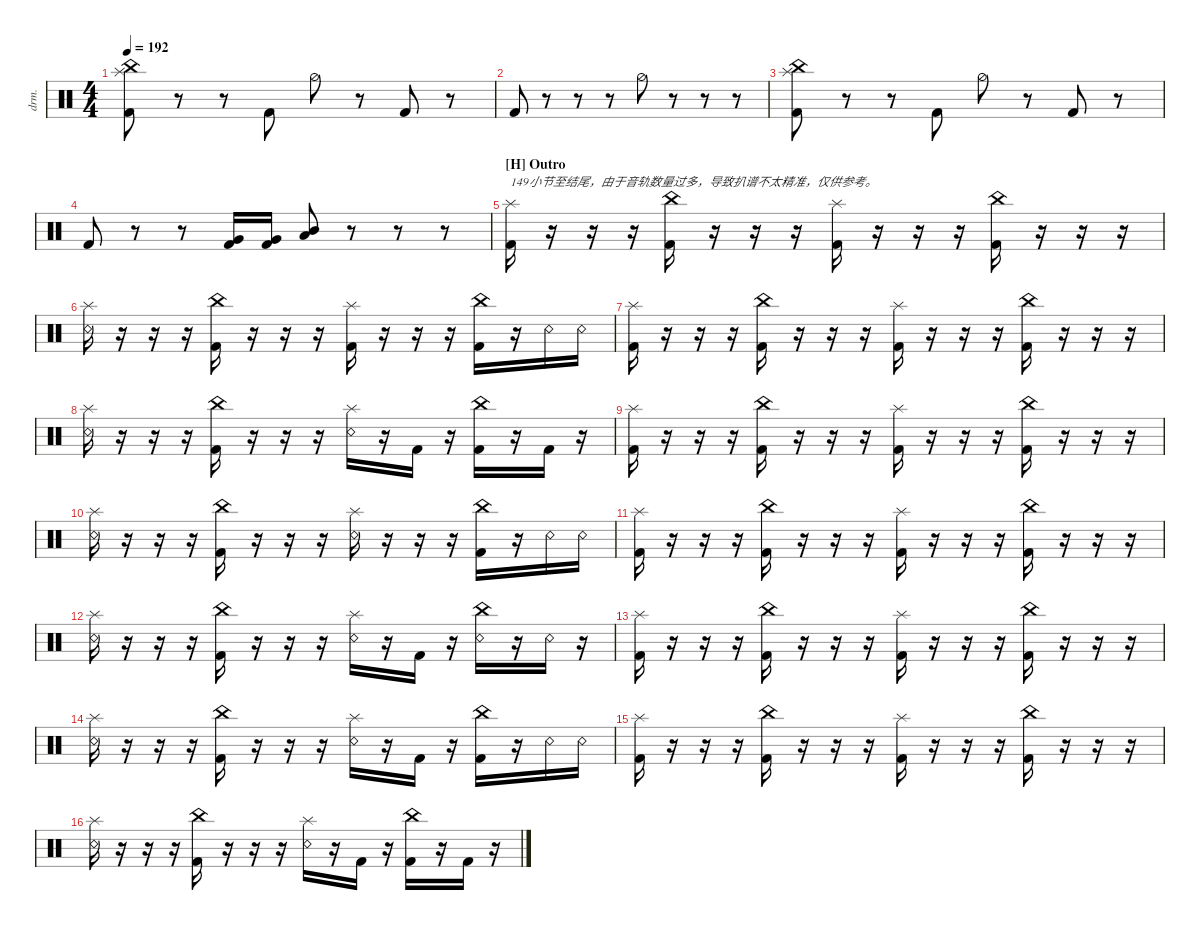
\defaultSystemsLayout 4
\hideDynamics
\bracketExtendMode nobrackets
\otherSystemsTrackNameOrientation horizontal
\track ("Drumkit" "drm.") {instrument percussion}
\staff {score}
\articulation defaults
\ts (4 4)
\tempo 192
\clef neutral
\ks c
("Kick (hit) 2" "China (hit)" "Splash (hit)").8{dy ff beam Down} r.8{beam Down} r.8{beam Down} "Kick (hit) 2".8{beam Up} "Hi-Hat (half)".8{beam Down} r.8{beam Down} "Kick (hit) 2".8{beam Up} r.8{beam Up} |
"Kick (hit) 2".8{beam Up} r.8{beam Up} r.8{beam Up} r.8{beam Up} "Hi-Hat (half)".8{beam Down} r.8{beam Down} r.8{beam Down} r.8{beam Down} |
("Kick (hit) 2" "China (hit)" "Splash (hit)").8{beam Down} r.8{beam Down} r.8{beam Down} "Kick (hit) 2".8{beam Up} "Hi-Hat (half)".8{beam Down} r.8{beam Down} "Kick (hit) 2".8{beam Up} r.8{beam Up} |
"Kick (hit) 2".8{beam Up} r.8{beam Up} r.8{beam Up} ("Kick (hit) 2" "Very Low Tom (hit)").16{beam Up} ("Kick (hit) 2" "Very Low Tom (hit)").16{beam Up} ("Mid Tom (hit)" "Low Tom (hit)").8{beam Up} r.8{beam Up} r.8{beam Up} r.8{beam Up} |
\section ("H" "Outro")
("Kick (hit) 2" "Splash (hit)").16{txt "149小节至结尾，由于音轨数量过多，导致扒谱不太精准，仅供参考。" beam Down} r.16{beam Down} r.16{beam Down} r.16{beam Down} ("Kick (hit) 2" "China (hit)").16{beam Down} r.16{beam Down} r.16{beam Down} r.16{beam Down} ("Kick (hit) 2" "Splash (hit)").16{beam Down} r.16{beam Down} r.16{beam Down} r.16{beam Down} ("Kick (hit) 2" "China (hit)").16{beam Down} r.16{beam Down} r.16{beam Down} r.16{beam Down} |
("Snare (rim shot)" "Splash (hit)").16{beam Down} r.16{beam Down} r.16{beam Down} r.16{beam Down} ("Kick (hit) 2" "China (hit)").16{beam Down} r.16{beam Down} r.16{beam Down} r.16{beam Down} ("Kick (hit) 2" "Splash (hit)").16{beam Down} r.16{beam Down} r.16{beam Down} r.16{beam Down} ("Kick (hit) 2" "China (hit)").16{beam Down} r.16{beam Down} "Snare (rim shot)".16{beam Down} "Snare (rim shot)".16{beam Down} |
("Kick (hit) 2" "Splash (hit)").16{beam Down} r.16{beam Down} r.16{beam Down} r.16{beam Down} ("Kick (hit) 2" "China (hit)").16{beam Down} r.16{beam Down} r.16{beam Down} r.16{beam Down} ("Kick (hit) 2" "Splash (hit)").16{beam Down} r.16{beam Down} r.16{beam Down} r.16{beam Down} ("Kick (hit) 2" "China (hit)").16{beam Down} r.16{beam Down} r.16{beam Down} r.16{beam Down} |
("Snare (rim shot)" "Splash (hit)").16{beam Down} r.16{beam Down} r.16{beam Down} r.16{beam Down} ("Kick (hit) 2" "China (hit)").16{beam Down} r.16{beam Down} r.16{beam Down} r.16{beam Down} ("Splash (hit)" "Snare (rim shot)").16{beam Down} r.16{beam Down} "Kick (hit) 2".16{beam Down} r.16{beam Down} ("Kick (hit) 2" "China (hit)").16{beam Down} r.16{beam Down} "Kick (hit) 2".16{beam Down} r.16{beam Down} |
("Kick (hit) 2" "Splash (hit)").16{beam Down} r.16{beam Down} r.16{beam Down} r.16{beam Down} ("Kick (hit) 2" "China (hit)").16{beam Down} r.16{beam Down} r.16{beam Down} r.16{beam Down} ("Kick (hit) 2" "Splash (hit)").16{beam Down} r.16{beam Down} r.16{beam Down} r.16{beam Down} ("Kick (hit) 2" "China (hit)").16{beam Down} r.16{beam Down} r.16{beam Down} r.16{beam Down} |
("Snare (rim shot)" "Splash (hit)").16{beam Down} r.16{beam Down} r.16{beam Down} r.16{beam Down} ("Kick (hit) 2" "China (hit)").16{beam Down} r.16{beam Down} r.16{beam Down} r.16{beam Down} ("Splash (hit)" "Snare (rim shot)").16{beam Down} r.16{beam Down} r.16{beam Down} r.16{beam Down} ("Kick (hit) 2" "China (hit)").16{beam Down} r.16{beam Down} "Snare (rim shot)".16{beam Down} "Snare (rim shot)".16{beam Down} |
("Kick (hit) 2" "Splash (hit)").16{beam Down} r.16{beam Down} r.16{beam Down} r.16{beam Down} ("Kick (hit) 2" "China (hit)").16{beam Down} r.16{beam Down} r.16{beam Down} r.16{beam Down} ("Kick (hit) 2" "Splash (hit)").16{beam Down} r.16{beam Down} r.16{beam Down} r.16{beam Down} ("Kick (hit) 2" "China (hit)").16{beam Down} r.16{beam Down} r.16{beam Down} r.16{beam Down} |
("Snare (rim shot)" "Splash (hit)").16{beam Down} r.16{beam Down} r.16{beam Down} r.16{beam Down} ("Kick (hit) 2" "China (hit)").16{beam Down} r.16{beam Down} r.16{beam Down} r.16{beam Down} ("Splash (hit)" "Snare (rim shot)").16{beam Down} r.16{beam Down} "Kick (hit) 2".16{beam Down} r.16{beam Down} ("China (hit)" "Snare (rim shot)").16{beam Down} r.16{beam Down} "Snare (rim shot)".16{beam Down} r.16{beam Down} |
("Kick (hit) 2" "Splash (hit)").16{beam Down} r.16{beam Down} r.16{beam Down} r.16{beam Down} ("Kick (hit) 2" "China (hit)").16{beam Down} r.16{beam Down} r.16{beam Down} r.16{beam Down} ("Kick (hit) 2" "Splash (hit)").16{beam Down} r.16{beam Down} r.16{beam Down} r.16{beam Down} ("Kick (hit) 2" "China (hit)").16{beam Down} r.16{beam Down} r.16{beam Down} r.16{beam Down} |
("Snare (rim shot)" "Splash (hit)").16{beam Down} r.16{beam Down} r.16{beam Down} r.16{beam Down} ("Kick (hit) 2" "China (hit)").16{beam Down} r.16{beam Down} r.16{beam Down} r.16{beam Down} ("Splash (hit)" "Snare (rim shot)").16{beam Down} r.16{beam Down} "Kick (hit) 2".16{beam Down} r.16{beam Down} ("Kick (hit) 2" "China (hit)").16{beam Down} r.16{beam Down} "Snare (rim shot)".16{beam Down} "Snare (rim shot)".16{beam Down} |
("Kick (hit) 2" "Splash (hit)").16{beam Down} r.16{beam Down} r.16{beam Down} r.16{beam Down} ("Kick (hit) 2" "China (hit)").16{beam Down} r.16{beam Down} r.16{beam Down} r.16{beam Down} ("Kick (hit) 2" "Splash (hit)").16{beam Down} r.16{beam Down} r.16{beam Down} r.16{beam Down} ("Kick (hit) 2" "China (hit)").16{beam Down} r.16{beam Down} r.16{beam Down} r.16{beam Down} |
("Snare (rim shot)" "Splash (hit)").16{beam Down} r.16{beam Down} r.16{beam Down} r.16{beam Down} ("Kick (hit) 2" "China (hit)").16{beam Down} r.16{beam Down} r.16{beam Down} r.16{beam Down} ("Splash (hit)" "Snare (rim shot)").16{beam Down} r.16{beam Down} "Kick (hit) 2".16{beam Down} r.16{beam Down} ("China (hit)" "Kick (hit) 2").16{beam Down} r.16{beam Down} "Kick (hit) 2".16{beam Down} r.16{beam Down}
